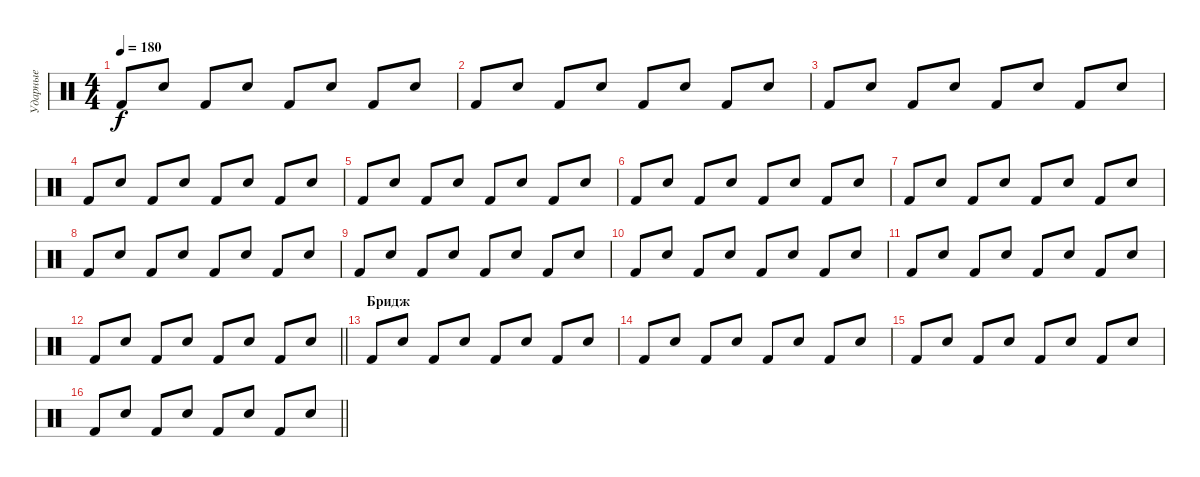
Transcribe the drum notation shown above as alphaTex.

\track ("Ударные" "Ударные") {instrument percussion}
\staff {score}
\articulation defaults
\ts (4 4)
\tempo 180
\clef neutral
\ks c "Kick (hit) 2".8{dy f} "Snare (hit) 2".8 "Kick (hit) 2".8 "Snare (hit) 2".8 "Kick (hit) 2".8 "Snare (hit) 2".8 "Kick (hit) 2".8 "Snare (hit) 2".8
|
"Kick (hit) 2".8 "Snare (hit) 2".8 "Kick (hit) 2".8 "Snare (hit) 2".8 "Kick (hit) 2".8 "Snare (hit) 2".8 "Kick (hit) 2".8 "Snare (hit) 2".8 |
"Kick (hit) 2".8 "Snare (hit) 2".8 "Kick (hit) 2".8 "Snare (hit) 2".8 "Kick (hit) 2".8 "Snare (hit) 2".8 "Kick (hit) 2".8 "Snare (hit) 2".8 |
"Kick (hit) 2".8 "Snare (hit) 2".8 "Kick (hit) 2".8 "Snare (hit) 2".8 "Kick (hit) 2".8 "Snare (hit) 2".8 "Kick (hit) 2".8 "Snare (hit) 2".8 |
"Kick (hit) 2".8 "Snare (hit) 2".8 "Kick (hit) 2".8 "Snare (hit) 2".8 "Kick (hit) 2".8 "Snare (hit) 2".8 "Kick (hit) 2".8 "Snare (hit) 2".8 |
"Kick (hit) 2".8 "Snare (hit) 2".8 "Kick (hit) 2".8 "Snare (hit) 2".8 "Kick (hit) 2".8 "Snare (hit) 2".8 "Kick (hit) 2".8 "Snare (hit) 2".8 |
"Kick (hit) 2".8 "Snare (hit) 2".8 "Kick (hit) 2".8 "Snare (hit) 2".8 "Kick (hit) 2".8 "Snare (hit) 2".8 "Kick (hit) 2".8 "Snare (hit) 2".8 |
"Kick (hit) 2".8 "Snare (hit) 2".8 "Kick (hit) 2".8 "Snare (hit) 2".8 "Kick (hit) 2".8 "Snare (hit) 2".8 "Kick (hit) 2".8 "Snare (hit) 2".8 |
"Kick (hit) 2".8 "Snare (hit) 2".8 "Kick (hit) 2".8 "Snare (hit) 2".8 "Kick (hit) 2".8 "Snare (hit) 2".8 "Kick (hit) 2".8 "Snare (hit) 2".8 |
"Kick (hit) 2".8 "Snare (hit) 2".8 "Kick (hit) 2".8 "Snare (hit) 2".8 "Kick (hit) 2".8 "Snare (hit) 2".8 "Kick (hit) 2".8 "Snare (hit) 2".8 |
"Kick (hit) 2".8 "Snare (hit) 2".8 "Kick (hit) 2".8 "Snare (hit) 2".8 "Kick (hit) 2".8 "Snare (hit) 2".8 "Kick (hit) 2".8 "Snare (hit) 2".8 |
\barLineRight lightlight "Kick (hit) 2".8 "Snare (hit) 2".8 "Kick (hit) 2".8 "Snare (hit) 2".8 "Kick (hit) 2".8 "Snare (hit) 2".8 "Kick (hit) 2".8 "Snare (hit) 2".8
|
\section ("" "Бридж")
"Kick (hit) 2".8 "Snare (hit) 2".8 "Kick (hit) 2".8 "Snare (hit) 2".8 "Kick (hit) 2".8 "Snare (hit) 2".8 "Kick (hit) 2".8 "Snare (hit) 2".8 |
"Kick (hit) 2".8 "Snare (hit) 2".8 "Kick (hit) 2".8 "Snare (hit) 2".8 "Kick (hit) 2".8 "Snare (hit) 2".8 "Kick (hit) 2".8 "Snare (hit) 2".8 |
"Kick (hit) 2".8 "Snare (hit) 2".8 "Kick (hit) 2".8 "Snare (hit) 2".8 "Kick (hit) 2".8 "Snare (hit) 2".8 "Kick (hit) 2".8 "Snare (hit) 2".8 |
\barLineRight lightlight "Kick (hit) 2".8 "Snare (hit) 2".8 "Kick (hit) 2".8 "Snare (hit) 2".8 "Kick (hit) 2".8 "Snare (hit) 2".8 "Kick (hit) 2".8 "Snare (hit) 2".8
